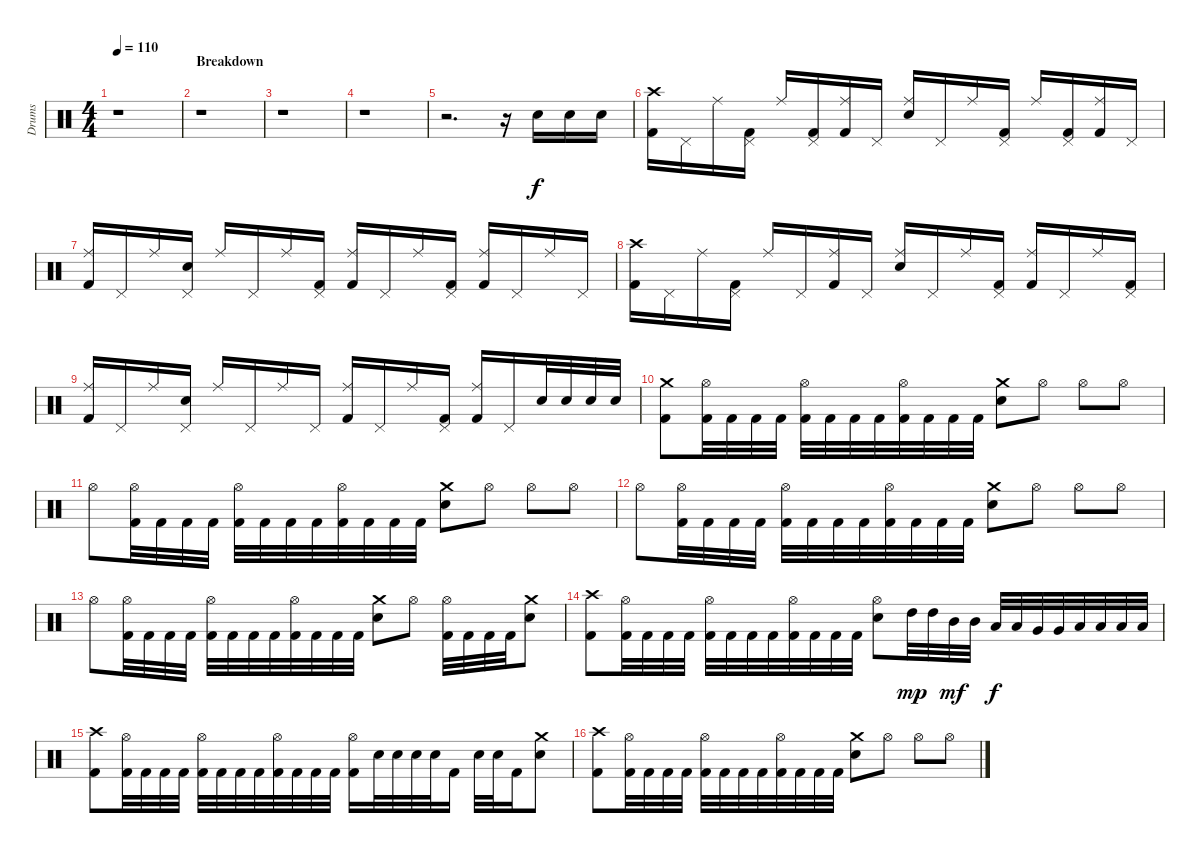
\track ("Drums" "Drums") {instrument percussion}
\staff {score}
\articulation defaults
\ts (4 4)
\tempo 110
\clef neutral
\ks c
r.1{dy f} |
\section ("" "Breakdown")
r.1 |
r.1 |
r.1 |
r.2{d} r.16 "Electric Snare (hit)".16 "Electric Snare (hit)".16 "Electric Snare (hit)".16 |
("Crash high (hit)" "Kick (hit) 2").16 "Pedal Hi-Hat (hit)".16 "Ride (middle)".16 ("Pedal Hi-Hat (hit)" "Kick (hit) 2").16 "Ride (middle)".16 ("Pedal Hi-Hat (hit)" "Kick (hit) 2").16 ("Ride (middle)" "Kick (hit) 2").16 "Pedal Hi-Hat (hit)".16 ("Ride (middle)" "Electric Snare (hit)").16 "Pedal Hi-Hat (hit)".16 "Ride (middle)".16 ("Pedal Hi-Hat (hit)" "Kick (hit) 2").16 "Ride (middle)".16 ("Pedal Hi-Hat (hit)" "Kick (hit) 2").16 ("Ride (middle)" "Kick (hit) 2").16 "Pedal Hi-Hat (hit)".16 |
("Ride (middle)" "Kick (hit) 2").16 "Pedal Hi-Hat (hit)".16 "Ride (middle)".16 ("Pedal Hi-Hat (hit)" "Electric Snare (hit)").16 "Ride (middle)".16 "Pedal Hi-Hat (hit)".16 "Ride (middle)".16 ("Pedal Hi-Hat (hit)" "Kick (hit) 2").16 ("Ride (middle)" "Kick (hit) 2").16 "Pedal Hi-Hat (hit)".16 "Ride (middle)".16 ("Pedal Hi-Hat (hit)" "Kick (hit) 2").16 ("Ride (middle)" "Kick (hit) 2").16 "Pedal Hi-Hat (hit)".16 "Ride (middle)".16 "Pedal Hi-Hat (hit)".16 |
("Crash high (hit)" "Kick (hit) 2").16 "Pedal Hi-Hat (hit)".16 "Ride (middle)".16 ("Pedal Hi-Hat (hit)" "Kick (hit) 2").16 "Ride (middle)".16 "Pedal Hi-Hat (hit)".16 ("Ride (middle)" "Kick (hit) 2").16 "Pedal Hi-Hat (hit)".16 ("Ride (middle)" "Electric Snare (hit)").16 "Pedal Hi-Hat (hit)".16 "Ride (middle)".16 ("Pedal Hi-Hat (hit)" "Kick (hit) 2").16 ("Ride (middle)" "Kick (hit) 2").16 "Pedal Hi-Hat (hit)".16 "Ride (middle)".16 ("Pedal Hi-Hat (hit)" "Kick (hit) 2").16 |
("Ride (middle)" "Kick (hit) 2").16 "Pedal Hi-Hat (hit)".16 "Ride (middle)".16 ("Pedal Hi-Hat (hit)" "Electric Snare (hit)").16 "Ride (middle)".16 "Pedal Hi-Hat (hit)".16 "Ride (middle)".16 "Pedal Hi-Hat (hit)".16 ("Ride (middle)" "Kick (hit) 2").16 "Pedal Hi-Hat (hit)".16 "Ride (middle)".16 ("Pedal Hi-Hat (hit)" "Kick (hit) 2").16 ("Ride (middle)" "Kick (hit) 2").16 "Pedal Hi-Hat (hit)".16 "Electric Snare (hit)".32 "Electric Snare (hit)".32 "Electric Snare (hit)".32 "Electric Snare (hit)".32 |
("Crash medium (hit)" "Kick (hit) 2").8 ("Hi-Hat (open)" "Kick (hit) 2").32 "Kick (hit) 2".32 "Kick (hit) 2".32 "Kick (hit) 2".32 ("Hi-Hat (open)" "Kick (hit) 2").32 "Kick (hit) 2".32 "Kick (hit) 2".32 "Kick (hit) 2".32 ("Hi-Hat (open)" "Kick (hit) 2").32 "Kick (hit) 2".32 "Kick (hit) 2".32 "Kick (hit) 2".32 ("Crash medium (hit)" "Electric Snare (hit)").8 "Hi-Hat (open)".8 "Hi-Hat (open)".8 "Hi-Hat (open)".8 |
"Hi-Hat (open)".8 ("Hi-Hat (open)" "Kick (hit) 2").32 "Kick (hit) 2".32 "Kick (hit) 2".32 "Kick (hit) 2".32 ("Hi-Hat (open)" "Kick (hit) 2").32 "Kick (hit) 2".32 "Kick (hit) 2".32 "Kick (hit) 2".32 ("Hi-Hat (open)" "Kick (hit) 2").32 "Kick (hit) 2".32 "Kick (hit) 2".32 "Kick (hit) 2".32 ("Crash medium (hit)" "Electric Snare (hit)").8 "Hi-Hat (open)".8 "Hi-Hat (open)".8 "Hi-Hat (open)".8 |
"Hi-Hat (open)".8 ("Hi-Hat (open)" "Kick (hit) 2").32 "Kick (hit) 2".32 "Kick (hit) 2".32 "Kick (hit) 2".32 ("Hi-Hat (open)" "Kick (hit) 2").32 "Kick (hit) 2".32 "Kick (hit) 2".32 "Kick (hit) 2".32 ("Hi-Hat (open)" "Kick (hit) 2").32 "Kick (hit) 2".32 "Kick (hit) 2".32 "Kick (hit) 2".32 ("Crash medium (hit)" "Electric Snare (hit)").8 "Hi-Hat (open)".8 "Hi-Hat (open)".8 "Hi-Hat (open)".8 |
"Hi-Hat (open)".8 ("Hi-Hat (open)" "Kick (hit) 2").32 "Kick (hit) 2".32 "Kick (hit) 2".32 "Kick (hit) 2".32 ("Hi-Hat (open)" "Kick (hit) 2").32 "Kick (hit) 2".32 "Kick (hit) 2".32 "Kick (hit) 2".32 ("Hi-Hat (open)" "Kick (hit) 2").32 "Kick (hit) 2".32 "Kick (hit) 2".32 "Kick (hit) 2".32 ("Crash medium (hit)" "Electric Snare (hit)").8 "Hi-Hat (open)".8 ("Hi-Hat (open)" "Kick (hit) 2").32 "Kick (hit) 2".32 "Kick (hit) 2".32 "Kick (hit) 2".32 ("Crash medium (hit)" "Electric Snare (hit)").8 |
("Crash high (hit)" "Kick (hit) 2").8 ("Hi-Hat (open)" "Kick (hit) 2").32 "Kick (hit) 2".32 "Kick (hit) 2".32 "Kick (hit) 2".32 ("Hi-Hat (open)" "Kick (hit) 2").32 "Kick (hit) 2".32 "Kick (hit) 2".32 "Kick (hit) 2".32 ("Hi-Hat (open)" "Kick (hit) 2").32 "Kick (hit) 2".32 "Kick (hit) 2".32 "Kick (hit) 2".32 ("Hi-Hat (open)" "Electric Snare (hit)").8 "High Tom (hit)".32{dy mp} "High Tom (hit)".32 "Mid Tom (hit)".32{dy mf} "Mid Tom (hit)".32 "Low Tom (hit)".32{dy f} "Low Tom (hit)".32 "Very Low Tom (hit)".32 "Very Low Tom (hit)".32 "Low Floor Tom (hit)".32 "Low Floor Tom (hit)".32 "Low Floor Tom (hit)".32 "Low Floor Tom (hit)".32 |
("Crash high (hit)" "Kick (hit) 2").8 ("Hi-Hat (open)" "Kick (hit) 2").32 "Kick (hit) 2".32 "Kick (hit) 2".32 "Kick (hit) 2".32 ("Hi-Hat (open)" "Kick (hit) 2").32 "Kick (hit) 2".32 "Kick (hit) 2".32 "Kick (hit) 2".32 ("Hi-Hat (open)" "Kick (hit) 2").32 "Kick (hit) 2".32 "Kick (hit) 2".32 "Kick (hit) 2".32 ("Hi-Hat (open)" "Kick (hit) 2").16 "Electric Snare (hit)".32 "Electric Snare (hit)".32 "Electric Snare (hit)".32 "Electric Snare (hit)".32 "Kick (hit) 2".16 "Electric Snare (hit)".32 "Electric Snare (hit)".32 "Kick (hit) 2".16 ("Crash medium (hit)" "Electric Snare (hit)").8 |
("Crash high (hit)" "Kick (hit) 2").8 ("Hi-Hat (open)" "Kick (hit) 2").32 "Kick (hit) 2".32 "Kick (hit) 2".32 "Kick (hit) 2".32 ("Hi-Hat (open)" "Kick (hit) 2").32 "Kick (hit) 2".32 "Kick (hit) 2".32 "Kick (hit) 2".32 ("Hi-Hat (open)" "Kick (hit) 2").32 "Kick (hit) 2".32 "Kick (hit) 2".32 "Kick (hit) 2".32 ("Crash medium (hit)" "Electric Snare (hit)").8 "Hi-Hat (open)".8 "Hi-Hat (open)".8 "Hi-Hat (open)".8
